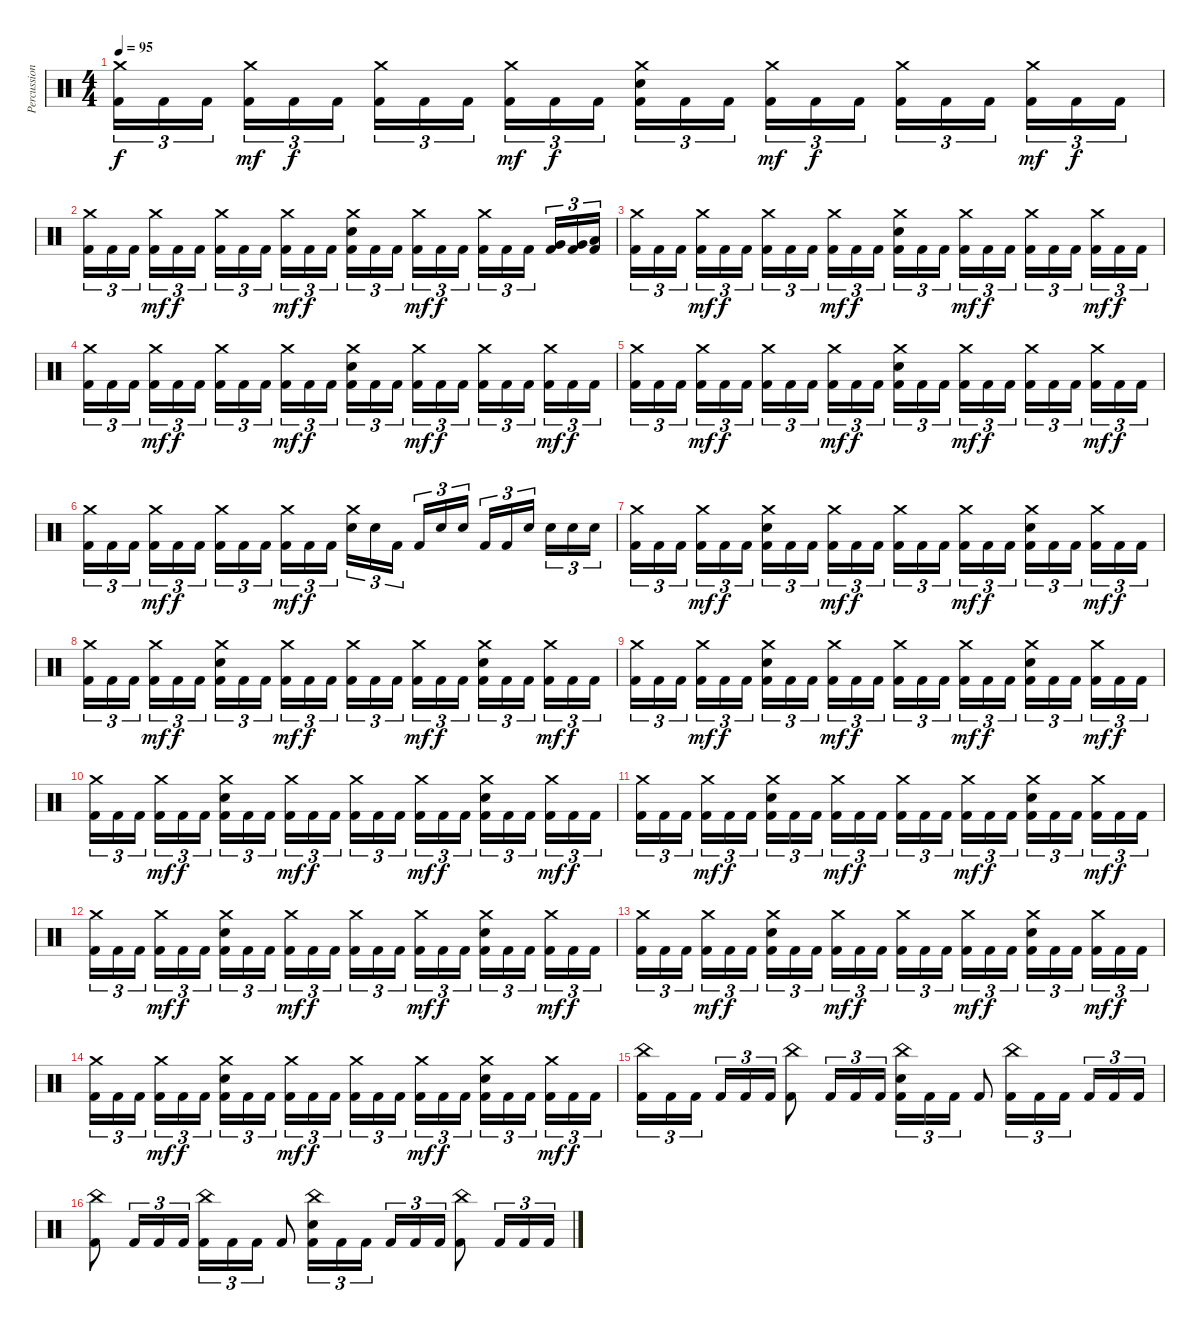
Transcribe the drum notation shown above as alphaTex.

\track ("Percussion" "Percussion") {instrument percussion}
\staff {score}
\articulation defaults
\ts (4 4)
\tempo 95
\clef neutral
\ks c
("Crash medium (hit)" "Kick (hit) 2").16{tu (3 2) dy f} "Kick (hit) 2".16{tu (3 2)} "Kick (hit) 2".16{tu (3 2) beam splitsecondary} ("Crash medium (hit)" "Kick (hit) 2").16{tu (3 2) dy mf} "Kick (hit) 2".16{tu (3 2) dy f} "Kick (hit) 2".16{tu (3 2)} ("Crash medium (hit)" "Kick (hit) 2").16{tu (3 2)} "Kick (hit) 2".16{tu (3 2)} "Kick (hit) 2".16{tu (3 2) beam splitsecondary} ("Crash medium (hit)" "Kick (hit) 2").16{tu (3 2) dy mf} "Kick (hit) 2".16{tu (3 2) dy f} "Kick (hit) 2".16{tu (3 2)} ("Crash medium (hit)" "Electric Snare (hit)" "Kick (hit) 2").16{tu (3 2)} "Kick (hit) 2".16{tu (3 2)} "Kick (hit) 2".16{tu (3 2) beam splitsecondary} ("Crash medium (hit)" "Kick (hit) 2").16{tu (3 2) dy mf} "Kick (hit) 2".16{tu (3 2) dy f} "Kick (hit) 2".16{tu (3 2)} ("Crash medium (hit)" "Kick (hit) 2").16{tu (3 2)} "Kick (hit) 2".16{tu (3 2)} "Kick (hit) 2".16{tu (3 2) beam splitsecondary} ("Crash medium (hit)" "Kick (hit) 2").16{tu (3 2) dy mf} "Kick (hit) 2".16{tu (3 2) dy f} "Kick (hit) 2".16{tu (3 2)} |
("Crash medium (hit)" "Kick (hit) 2").16{tu (3 2)} "Kick (hit) 2".16{tu (3 2)} "Kick (hit) 2".16{tu (3 2) beam splitsecondary} ("Crash medium (hit)" "Kick (hit) 2").16{tu (3 2) dy mf} "Kick (hit) 2".16{tu (3 2) dy f} "Kick (hit) 2".16{tu (3 2)} ("Crash medium (hit)" "Kick (hit) 2").16{tu (3 2)} "Kick (hit) 2".16{tu (3 2)} "Kick (hit) 2".16{tu (3 2) beam splitsecondary} ("Crash medium (hit)" "Kick (hit) 2").16{tu (3 2) dy mf} "Kick (hit) 2".16{tu (3 2) dy f} "Kick (hit) 2".16{tu (3 2)} ("Crash medium (hit)" "Electric Snare (hit)" "Kick (hit) 2").16{tu (3 2)} "Kick (hit) 2".16{tu (3 2)} "Kick (hit) 2".16{tu (3 2) beam splitsecondary} ("Crash medium (hit)" "Kick (hit) 2").16{tu (3 2) dy mf} "Kick (hit) 2".16{tu (3 2) dy f} "Kick (hit) 2".16{tu (3 2)} ("Crash medium (hit)" "Kick (hit) 2").16{tu (3 2)} "Kick (hit) 2".16{tu (3 2)} "Kick (hit) 2".16{tu (3 2) beam splitsecondary} ("Very Low Tom (hit)" "Kick (hit) 2").16{tu (3 2)} ("Very Low Tom (hit)" "Kick (hit) 2").16{tu (3 2)} ("Low Floor Tom (hit)" "Kick (hit) 2").16{tu (3 2)} |
("Crash medium (hit)" "Kick (hit) 2").16{tu (3 2)} "Kick (hit) 2".16{tu (3 2)} "Kick (hit) 2".16{tu (3 2) beam splitsecondary} ("Crash medium (hit)" "Kick (hit) 2").16{tu (3 2) dy mf} "Kick (hit) 2".16{tu (3 2) dy f} "Kick (hit) 2".16{tu (3 2)} ("Crash medium (hit)" "Kick (hit) 2").16{tu (3 2)} "Kick (hit) 2".16{tu (3 2)} "Kick (hit) 2".16{tu (3 2) beam splitsecondary} ("Crash medium (hit)" "Kick (hit) 2").16{tu (3 2) dy mf} "Kick (hit) 2".16{tu (3 2) dy f} "Kick (hit) 2".16{tu (3 2)} ("Crash medium (hit)" "Electric Snare (hit)" "Kick (hit) 2").16{tu (3 2)} "Kick (hit) 2".16{tu (3 2)} "Kick (hit) 2".16{tu (3 2) beam splitsecondary} ("Crash medium (hit)" "Kick (hit) 2").16{tu (3 2) dy mf} "Kick (hit) 2".16{tu (3 2) dy f} "Kick (hit) 2".16{tu (3 2)} ("Crash medium (hit)" "Kick (hit) 2").16{tu (3 2)} "Kick (hit) 2".16{tu (3 2)} "Kick (hit) 2".16{tu (3 2) beam splitsecondary} ("Crash medium (hit)" "Kick (hit) 2").16{tu (3 2) dy mf} "Kick (hit) 2".16{tu (3 2) dy f} "Kick (hit) 2".16{tu (3 2)} |
("Crash medium (hit)" "Kick (hit) 2").16{tu (3 2)} "Kick (hit) 2".16{tu (3 2)} "Kick (hit) 2".16{tu (3 2) beam splitsecondary} ("Crash medium (hit)" "Kick (hit) 2").16{tu (3 2) dy mf} "Kick (hit) 2".16{tu (3 2) dy f} "Kick (hit) 2".16{tu (3 2)} ("Crash medium (hit)" "Kick (hit) 2").16{tu (3 2)} "Kick (hit) 2".16{tu (3 2)} "Kick (hit) 2".16{tu (3 2) beam splitsecondary} ("Crash medium (hit)" "Kick (hit) 2").16{tu (3 2) dy mf} "Kick (hit) 2".16{tu (3 2) dy f} "Kick (hit) 2".16{tu (3 2)} ("Crash medium (hit)" "Electric Snare (hit)" "Kick (hit) 2").16{tu (3 2)} "Kick (hit) 2".16{tu (3 2)} "Kick (hit) 2".16{tu (3 2) beam splitsecondary} ("Crash medium (hit)" "Kick (hit) 2").16{tu (3 2) dy mf} "Kick (hit) 2".16{tu (3 2) dy f} "Kick (hit) 2".16{tu (3 2)} ("Crash medium (hit)" "Kick (hit) 2").16{tu (3 2)} "Kick (hit) 2".16{tu (3 2)} "Kick (hit) 2".16{tu (3 2) beam splitsecondary} ("Crash medium (hit)" "Kick (hit) 2").16{tu (3 2) dy mf} "Kick (hit) 2".16{tu (3 2) dy f} "Kick (hit) 2".16{tu (3 2)} |
("Crash medium (hit)" "Kick (hit) 2").16{tu (3 2)} "Kick (hit) 2".16{tu (3 2)} "Kick (hit) 2".16{tu (3 2) beam splitsecondary} ("Crash medium (hit)" "Kick (hit) 2").16{tu (3 2) dy mf} "Kick (hit) 2".16{tu (3 2) dy f} "Kick (hit) 2".16{tu (3 2)} ("Crash medium (hit)" "Kick (hit) 2").16{tu (3 2)} "Kick (hit) 2".16{tu (3 2)} "Kick (hit) 2".16{tu (3 2) beam splitsecondary} ("Crash medium (hit)" "Kick (hit) 2").16{tu (3 2) dy mf} "Kick (hit) 2".16{tu (3 2) dy f} "Kick (hit) 2".16{tu (3 2)} ("Crash medium (hit)" "Electric Snare (hit)" "Kick (hit) 2").16{tu (3 2)} "Kick (hit) 2".16{tu (3 2)} "Kick (hit) 2".16{tu (3 2) beam splitsecondary} ("Crash medium (hit)" "Kick (hit) 2").16{tu (3 2) dy mf} "Kick (hit) 2".16{tu (3 2) dy f} "Kick (hit) 2".16{tu (3 2)} ("Crash medium (hit)" "Kick (hit) 2").16{tu (3 2)} "Kick (hit) 2".16{tu (3 2)} "Kick (hit) 2".16{tu (3 2) beam splitsecondary} ("Crash medium (hit)" "Kick (hit) 2").16{tu (3 2) dy mf} "Kick (hit) 2".16{tu (3 2) dy f} "Kick (hit) 2".16{tu (3 2)} |
("Crash medium (hit)" "Kick (hit) 2").16{tu (3 2)} "Kick (hit) 2".16{tu (3 2)} "Kick (hit) 2".16{tu (3 2) beam splitsecondary} ("Crash medium (hit)" "Kick (hit) 2").16{tu (3 2) dy mf} "Kick (hit) 2".16{tu (3 2) dy f} "Kick (hit) 2".16{tu (3 2)} ("Crash medium (hit)" "Kick (hit) 2").16{tu (3 2)} "Kick (hit) 2".16{tu (3 2)} "Kick (hit) 2".16{tu (3 2) beam splitsecondary} ("Crash medium (hit)" "Kick (hit) 2").16{tu (3 2) dy mf} "Kick (hit) 2".16{tu (3 2) dy f} "Kick (hit) 2".16{tu (3 2)} ("Crash medium (hit)" "Electric Snare (hit)").16{tu (3 2)} "Electric Snare (hit)".16{tu (3 2)} "Kick (hit) 2".16{tu (3 2) beam splitsecondary} "Kick (hit) 2".16{tu (3 2)} "Electric Snare (hit)".16{tu (3 2)} "Electric Snare (hit)".16{tu (3 2)} "Kick (hit) 2".16{tu (3 2)} "Kick (hit) 2".16{tu (3 2)} "Electric Snare (hit)".16{tu (3 2) beam splitsecondary} "Electric Snare (hit)".16{tu (3 2)} "Electric Snare (hit)".16{tu (3 2)} "Electric Snare (hit)".16{tu (3 2)} |
("Crash medium (hit)" "Kick (hit) 2").16{tu (3 2)} "Kick (hit) 2".16{tu (3 2)} "Kick (hit) 2".16{tu (3 2) beam splitsecondary} ("Crash medium (hit)" "Kick (hit) 2").16{tu (3 2) dy mf} "Kick (hit) 2".16{tu (3 2) dy f} "Kick (hit) 2".16{tu (3 2)} ("Crash medium (hit)" "Electric Snare (hit)" "Kick (hit) 2").16{tu (3 2)} "Kick (hit) 2".16{tu (3 2)} "Kick (hit) 2".16{tu (3 2) beam splitsecondary} ("Crash medium (hit)" "Kick (hit) 2").16{tu (3 2) dy mf} "Kick (hit) 2".16{tu (3 2) dy f} "Kick (hit) 2".16{tu (3 2)} ("Crash medium (hit)" "Kick (hit) 2").16{tu (3 2)} "Kick (hit) 2".16{tu (3 2)} "Kick (hit) 2".16{tu (3 2) beam splitsecondary} ("Crash medium (hit)" "Kick (hit) 2").16{tu (3 2) dy mf} "Kick (hit) 2".16{tu (3 2) dy f} "Kick (hit) 2".16{tu (3 2)} ("Crash medium (hit)" "Electric Snare (hit)" "Kick (hit) 2").16{tu (3 2)} "Kick (hit) 2".16{tu (3 2)} "Kick (hit) 2".16{tu (3 2) beam splitsecondary} ("Crash medium (hit)" "Kick (hit) 2").16{tu (3 2) dy mf} "Kick (hit) 2".16{tu (3 2) dy f} "Kick (hit) 2".16{tu (3 2)} |
("Crash medium (hit)" "Kick (hit) 2").16{tu (3 2)} "Kick (hit) 2".16{tu (3 2)} "Kick (hit) 2".16{tu (3 2) beam splitsecondary} ("Crash medium (hit)" "Kick (hit) 2").16{tu (3 2) dy mf} "Kick (hit) 2".16{tu (3 2) dy f} "Kick (hit) 2".16{tu (3 2)} ("Crash medium (hit)" "Electric Snare (hit)" "Kick (hit) 2").16{tu (3 2)} "Kick (hit) 2".16{tu (3 2)} "Kick (hit) 2".16{tu (3 2) beam splitsecondary} ("Crash medium (hit)" "Kick (hit) 2").16{tu (3 2) dy mf} "Kick (hit) 2".16{tu (3 2) dy f} "Kick (hit) 2".16{tu (3 2)} ("Crash medium (hit)" "Kick (hit) 2").16{tu (3 2)} "Kick (hit) 2".16{tu (3 2)} "Kick (hit) 2".16{tu (3 2) beam splitsecondary} ("Crash medium (hit)" "Kick (hit) 2").16{tu (3 2) dy mf} "Kick (hit) 2".16{tu (3 2) dy f} "Kick (hit) 2".16{tu (3 2)} ("Crash medium (hit)" "Electric Snare (hit)" "Kick (hit) 2").16{tu (3 2)} "Kick (hit) 2".16{tu (3 2)} "Kick (hit) 2".16{tu (3 2) beam splitsecondary} ("Crash medium (hit)" "Kick (hit) 2").16{tu (3 2) dy mf} "Kick (hit) 2".16{tu (3 2) dy f} "Kick (hit) 2".16{tu (3 2)} |
("Crash medium (hit)" "Kick (hit) 2").16{tu (3 2)} "Kick (hit) 2".16{tu (3 2)} "Kick (hit) 2".16{tu (3 2) beam splitsecondary} ("Crash medium (hit)" "Kick (hit) 2").16{tu (3 2) dy mf} "Kick (hit) 2".16{tu (3 2) dy f} "Kick (hit) 2".16{tu (3 2)} ("Crash medium (hit)" "Electric Snare (hit)" "Kick (hit) 2").16{tu (3 2)} "Kick (hit) 2".16{tu (3 2)} "Kick (hit) 2".16{tu (3 2) beam splitsecondary} ("Crash medium (hit)" "Kick (hit) 2").16{tu (3 2) dy mf} "Kick (hit) 2".16{tu (3 2) dy f} "Kick (hit) 2".16{tu (3 2)} ("Crash medium (hit)" "Kick (hit) 2").16{tu (3 2)} "Kick (hit) 2".16{tu (3 2)} "Kick (hit) 2".16{tu (3 2) beam splitsecondary} ("Crash medium (hit)" "Kick (hit) 2").16{tu (3 2) dy mf} "Kick (hit) 2".16{tu (3 2) dy f} "Kick (hit) 2".16{tu (3 2)} ("Crash medium (hit)" "Electric Snare (hit)" "Kick (hit) 2").16{tu (3 2)} "Kick (hit) 2".16{tu (3 2)} "Kick (hit) 2".16{tu (3 2) beam splitsecondary} ("Crash medium (hit)" "Kick (hit) 2").16{tu (3 2) dy mf} "Kick (hit) 2".16{tu (3 2) dy f} "Kick (hit) 2".16{tu (3 2)} |
("Crash medium (hit)" "Kick (hit) 2").16{tu (3 2)} "Kick (hit) 2".16{tu (3 2)} "Kick (hit) 2".16{tu (3 2) beam splitsecondary} ("Crash medium (hit)" "Kick (hit) 2").16{tu (3 2) dy mf} "Kick (hit) 2".16{tu (3 2) dy f} "Kick (hit) 2".16{tu (3 2)} ("Crash medium (hit)" "Electric Snare (hit)" "Kick (hit) 2").16{tu (3 2)} "Kick (hit) 2".16{tu (3 2)} "Kick (hit) 2".16{tu (3 2) beam splitsecondary} ("Crash medium (hit)" "Kick (hit) 2").16{tu (3 2) dy mf} "Kick (hit) 2".16{tu (3 2) dy f} "Kick (hit) 2".16{tu (3 2)} ("Crash medium (hit)" "Kick (hit) 2").16{tu (3 2)} "Kick (hit) 2".16{tu (3 2)} "Kick (hit) 2".16{tu (3 2) beam splitsecondary} ("Crash medium (hit)" "Kick (hit) 2").16{tu (3 2) dy mf} "Kick (hit) 2".16{tu (3 2) dy f} "Kick (hit) 2".16{tu (3 2)} ("Crash medium (hit)" "Electric Snare (hit)" "Kick (hit) 2").16{tu (3 2)} "Kick (hit) 2".16{tu (3 2)} "Kick (hit) 2".16{tu (3 2) beam splitsecondary} ("Crash medium (hit)" "Kick (hit) 2").16{tu (3 2) dy mf} "Kick (hit) 2".16{tu (3 2) dy f} "Kick (hit) 2".16{tu (3 2)} |
("Crash medium (hit)" "Kick (hit) 2").16{tu (3 2)} "Kick (hit) 2".16{tu (3 2)} "Kick (hit) 2".16{tu (3 2) beam splitsecondary} ("Crash medium (hit)" "Kick (hit) 2").16{tu (3 2) dy mf} "Kick (hit) 2".16{tu (3 2) dy f} "Kick (hit) 2".16{tu (3 2)} ("Crash medium (hit)" "Electric Snare (hit)" "Kick (hit) 2").16{tu (3 2)} "Kick (hit) 2".16{tu (3 2)} "Kick (hit) 2".16{tu (3 2) beam splitsecondary} ("Crash medium (hit)" "Kick (hit) 2").16{tu (3 2) dy mf} "Kick (hit) 2".16{tu (3 2) dy f} "Kick (hit) 2".16{tu (3 2)} ("Crash medium (hit)" "Kick (hit) 2").16{tu (3 2)} "Kick (hit) 2".16{tu (3 2)} "Kick (hit) 2".16{tu (3 2) beam splitsecondary} ("Crash medium (hit)" "Kick (hit) 2").16{tu (3 2) dy mf} "Kick (hit) 2".16{tu (3 2) dy f} "Kick (hit) 2".16{tu (3 2)} ("Crash medium (hit)" "Electric Snare (hit)" "Kick (hit) 2").16{tu (3 2)} "Kick (hit) 2".16{tu (3 2)} "Kick (hit) 2".16{tu (3 2) beam splitsecondary} ("Crash medium (hit)" "Kick (hit) 2").16{tu (3 2) dy mf} "Kick (hit) 2".16{tu (3 2) dy f} "Kick (hit) 2".16{tu (3 2)} |
("Crash medium (hit)" "Kick (hit) 2").16{tu (3 2)} "Kick (hit) 2".16{tu (3 2)} "Kick (hit) 2".16{tu (3 2) beam splitsecondary} ("Crash medium (hit)" "Kick (hit) 2").16{tu (3 2) dy mf} "Kick (hit) 2".16{tu (3 2) dy f} "Kick (hit) 2".16{tu (3 2)} ("Crash medium (hit)" "Electric Snare (hit)" "Kick (hit) 2").16{tu (3 2)} "Kick (hit) 2".16{tu (3 2)} "Kick (hit) 2".16{tu (3 2) beam splitsecondary} ("Crash medium (hit)" "Kick (hit) 2").16{tu (3 2) dy mf} "Kick (hit) 2".16{tu (3 2) dy f} "Kick (hit) 2".16{tu (3 2)} ("Crash medium (hit)" "Kick (hit) 2").16{tu (3 2)} "Kick (hit) 2".16{tu (3 2)} "Kick (hit) 2".16{tu (3 2) beam splitsecondary} ("Crash medium (hit)" "Kick (hit) 2").16{tu (3 2) dy mf} "Kick (hit) 2".16{tu (3 2) dy f} "Kick (hit) 2".16{tu (3 2)} ("Crash medium (hit)" "Electric Snare (hit)" "Kick (hit) 2").16{tu (3 2)} "Kick (hit) 2".16{tu (3 2)} "Kick (hit) 2".16{tu (3 2) beam splitsecondary} ("Crash medium (hit)" "Kick (hit) 2").16{tu (3 2) dy mf} "Kick (hit) 2".16{tu (3 2) dy f} "Kick (hit) 2".16{tu (3 2)} |
("Crash medium (hit)" "Kick (hit) 2").16{tu (3 2)} "Kick (hit) 2".16{tu (3 2)} "Kick (hit) 2".16{tu (3 2) beam splitsecondary} ("Crash medium (hit)" "Kick (hit) 2").16{tu (3 2) dy mf} "Kick (hit) 2".16{tu (3 2) dy f} "Kick (hit) 2".16{tu (3 2)} ("Crash medium (hit)" "Electric Snare (hit)" "Kick (hit) 2").16{tu (3 2)} "Kick (hit) 2".16{tu (3 2)} "Kick (hit) 2".16{tu (3 2) beam splitsecondary} ("Crash medium (hit)" "Kick (hit) 2").16{tu (3 2) dy mf} "Kick (hit) 2".16{tu (3 2) dy f} "Kick (hit) 2".16{tu (3 2)} ("Crash medium (hit)" "Kick (hit) 2").16{tu (3 2)} "Kick (hit) 2".16{tu (3 2)} "Kick (hit) 2".16{tu (3 2) beam splitsecondary} ("Crash medium (hit)" "Kick (hit) 2").16{tu (3 2) dy mf} "Kick (hit) 2".16{tu (3 2) dy f} "Kick (hit) 2".16{tu (3 2)} ("Crash medium (hit)" "Electric Snare (hit)" "Kick (hit) 2").16{tu (3 2)} "Kick (hit) 2".16{tu (3 2)} "Kick (hit) 2".16{tu (3 2) beam splitsecondary} ("Crash medium (hit)" "Kick (hit) 2").16{tu (3 2) dy mf} "Kick (hit) 2".16{tu (3 2) dy f} "Kick (hit) 2".16{tu (3 2)} |
("Crash medium (hit)" "Kick (hit) 2").16{tu (3 2)} "Kick (hit) 2".16{tu (3 2)} "Kick (hit) 2".16{tu (3 2) beam splitsecondary} ("Crash medium (hit)" "Kick (hit) 2").16{tu (3 2) dy mf} "Kick (hit) 2".16{tu (3 2) dy f} "Kick (hit) 2".16{tu (3 2)} ("Crash medium (hit)" "Electric Snare (hit)" "Kick (hit) 2").16{tu (3 2)} "Kick (hit) 2".16{tu (3 2)} "Kick (hit) 2".16{tu (3 2) beam splitsecondary} ("Crash medium (hit)" "Kick (hit) 2").16{tu (3 2) dy mf} "Kick (hit) 2".16{tu (3 2) dy f} "Kick (hit) 2".16{tu (3 2)} ("Crash medium (hit)" "Kick (hit) 2").16{tu (3 2)} "Kick (hit) 2".16{tu (3 2)} "Kick (hit) 2".16{tu (3 2) beam splitsecondary} ("Crash medium (hit)" "Kick (hit) 2").16{tu (3 2) dy mf} "Kick (hit) 2".16{tu (3 2) dy f} "Kick (hit) 2".16{tu (3 2)} ("Crash medium (hit)" "Electric Snare (hit)" "Kick (hit) 2").16{tu (3 2)} "Kick (hit) 2".16{tu (3 2)} "Kick (hit) 2".16{tu (3 2) beam splitsecondary} ("Crash medium (hit)" "Kick (hit) 2").16{tu (3 2) dy mf} "Kick (hit) 2".16{tu (3 2) dy f} "Kick (hit) 2".16{tu (3 2)} |
("China (hit)" "Kick (hit) 2").16{tu (3 2)} "Kick (hit) 2".16{tu (3 2)} "Kick (hit) 2".16{tu (3 2) beam splitsecondary} "Kick (hit) 2".16{tu (3 2)} "Kick (hit) 2".16{tu (3 2)} "Kick (hit) 2".16{tu (3 2)} ("China (hit)" "Kick (hit) 2").8 "Kick (hit) 2".16{tu (3 2)} "Kick (hit) 2".16{tu (3 2)} "Kick (hit) 2".16{tu (3 2)} ("China (hit)" "Electric Snare (hit)" "Kick (hit) 2").16{tu (3 2)} "Kick (hit) 2".16{tu (3 2)} "Kick (hit) 2".16{tu (3 2)} "Kick (hit) 2".8 ("China (hit)" "Kick (hit) 2").16{tu (3 2)} "Kick (hit) 2".16{tu (3 2)} "Kick (hit) 2".16{tu (3 2) beam splitsecondary} "Kick (hit) 2".16{tu (3 2)} "Kick (hit) 2".16{tu (3 2)} "Kick (hit) 2".16{tu (3 2)} |
("China (hit)" "Kick (hit) 2").8 "Kick (hit) 2".16{tu (3 2)} "Kick (hit) 2".16{tu (3 2)} "Kick (hit) 2".16{tu (3 2)} ("China (hit)" "Kick (hit) 2").16{tu (3 2)} "Kick (hit) 2".16{tu (3 2)} "Kick (hit) 2".16{tu (3 2)} "Kick (hit) 2".8 ("China (hit)" "Electric Snare (hit)" "Kick (hit) 2").16{tu (3 2)} "Kick (hit) 2".16{tu (3 2)} "Kick (hit) 2".16{tu (3 2) beam splitsecondary} "Kick (hit) 2".16{tu (3 2)} "Kick (hit) 2".16{tu (3 2)} "Kick (hit) 2".16{tu (3 2)} ("China (hit)" "Kick (hit) 2").8 "Kick (hit) 2".16{tu (3 2)} "Kick (hit) 2".16{tu (3 2)} "Kick (hit) 2".16{tu (3 2)}
